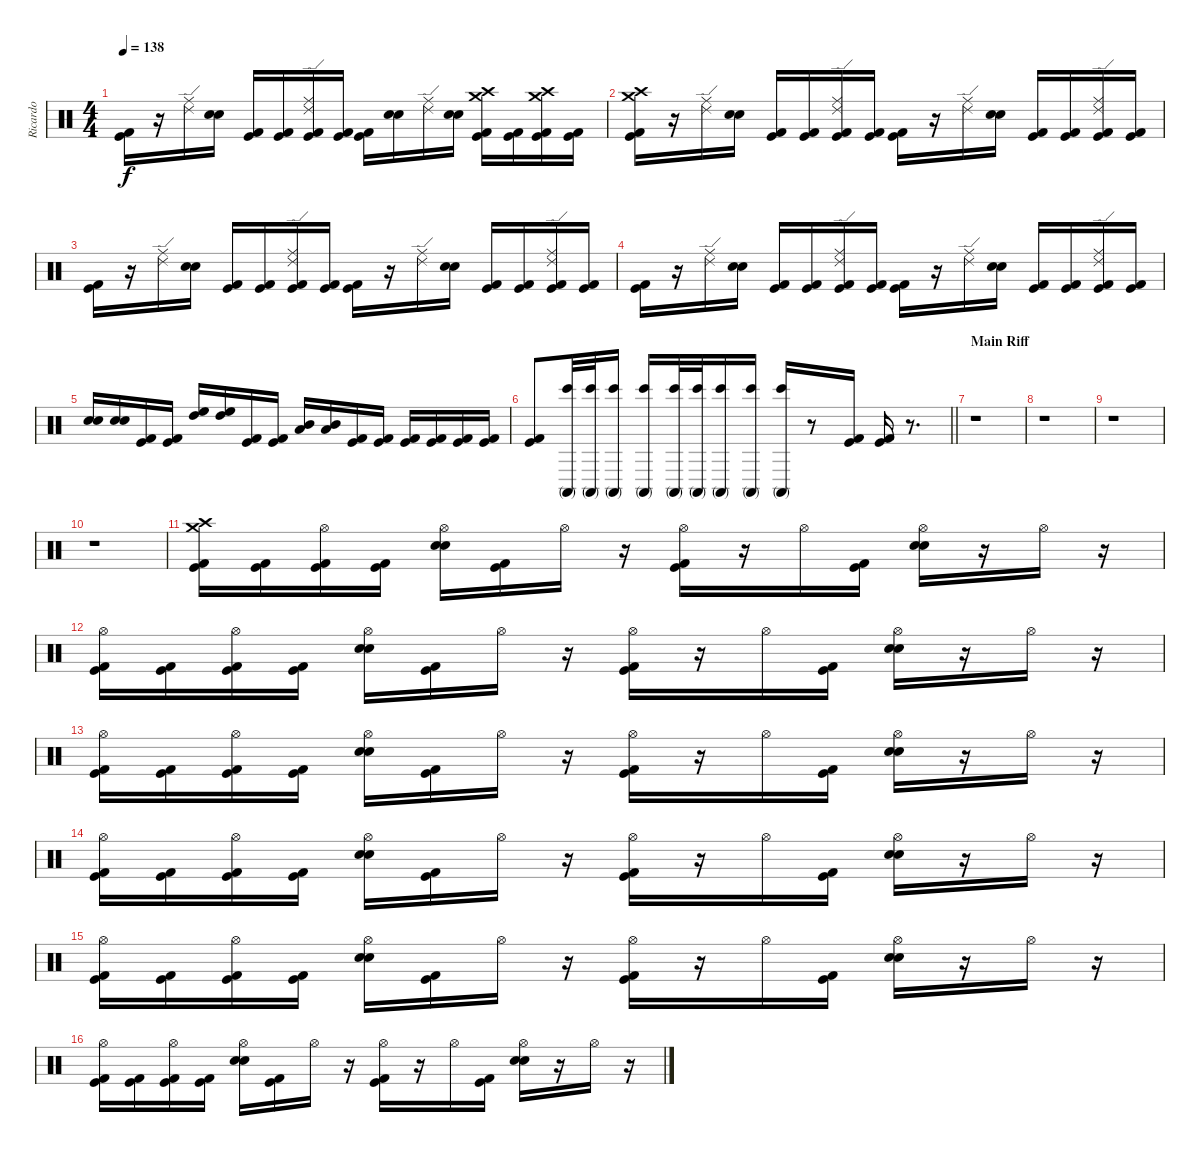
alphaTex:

\track ("Ricardo" "Ricardo") {instrument percussion}
\staff {score}
\articulation defaults
\ts (4 4)
\tempo 138
\clef neutral
\ks c
("Kick (hit)" "Kick (hit) 2").16{dy f} r.16 ("Ride (middle)" "Ride (edge) 2").16 ("Electric Snare (hit)" "Snare (hit) 2").16 ("Kick (hit) 2" "Kick (hit)").16 ("Kick (hit) 2" "Kick (hit)").16 ("Ride (middle)" "Ride (edge) 2" "Kick (hit) 2" "Kick (hit)").16 ("Kick (hit) 2" "Kick (hit)").16 ("Kick (hit) 2" "Kick (hit)").16 ("Electric Snare (hit)" "Snare (hit) 2").16 ("Ride (middle)" "Ride (edge) 2").16 ("Electric Snare (hit)" "Snare (hit) 2").16 ("Crash high (hit)" "Crash medium (hit)" "Kick (hit) 2" "Kick (hit)").16 ("Kick (hit) 2" "Kick (hit)").16 ("Crash high (hit)" "Crash medium (hit)" "Kick (hit) 2" "Kick (hit)").16 ("Kick (hit) 2" "Kick (hit)").16 |
("Crash high (hit)" "Crash medium (hit)" "Kick (hit) 2" "Kick (hit)").16 r.16 ("Ride (middle)" "Ride (edge) 2").16 ("Electric Snare (hit)" "Snare (hit) 2").16 ("Kick (hit) 2" "Kick (hit)").16 ("Kick (hit) 2" "Kick (hit)").16 ("Ride (middle)" "Ride (edge) 2" "Kick (hit) 2" "Kick (hit)").16 ("Kick (hit) 2" "Kick (hit)").16 ("Kick (hit) 2" "Kick (hit)").16 r.16 ("Ride (middle)" "Ride (edge) 2").16 ("Electric Snare (hit)" "Snare (hit) 2").16 ("Kick (hit) 2" "Kick (hit)").16 ("Kick (hit) 2" "Kick (hit)").16 ("Ride (middle)" "Ride (edge) 2" "Kick (hit) 2" "Kick (hit)").16 ("Kick (hit) 2" "Kick (hit)").16 |
("Kick (hit)" "Kick (hit) 2").16 r.16 ("Ride (middle)" "Ride (edge) 2").16 ("Electric Snare (hit)" "Snare (hit) 2").16 ("Kick (hit) 2" "Kick (hit)").16 ("Kick (hit) 2" "Kick (hit)").16 ("Ride (middle)" "Ride (edge) 2" "Kick (hit) 2" "Kick (hit)").16 ("Kick (hit) 2" "Kick (hit)").16 ("Kick (hit) 2" "Kick (hit)").16 r.16 ("Ride (middle)" "Ride (edge) 2").16 ("Electric Snare (hit)" "Snare (hit) 2").16 ("Kick (hit) 2" "Kick (hit)").16 ("Kick (hit) 2" "Kick (hit)").16 ("Ride (middle)" "Ride (edge) 2" "Kick (hit) 2" "Kick (hit)").16 ("Kick (hit) 2" "Kick (hit)").16 |
("Kick (hit)" "Kick (hit) 2").16 r.16 ("Ride (middle)" "Ride (edge) 2").16 ("Electric Snare (hit)" "Snare (hit) 2").16 ("Kick (hit) 2" "Kick (hit)").16 ("Kick (hit) 2" "Kick (hit)").16 ("Ride (middle)" "Ride (edge) 2" "Kick (hit) 2" "Kick (hit)").16 ("Kick (hit) 2" "Kick (hit)").16 ("Kick (hit) 2" "Kick (hit)").16 r.16 ("Ride (middle)" "Ride (edge) 2").16 ("Electric Snare (hit)" "Snare (hit) 2").16 ("Kick (hit) 2" "Kick (hit)").16 ("Kick (hit) 2" "Kick (hit)").16 ("Ride (middle)" "Ride (edge) 2" "Kick (hit) 2" "Kick (hit)").16 ("Kick (hit) 2" "Kick (hit)").16 |
("Electric Snare (hit)" "Snare (hit) 2").16 ("Electric Snare (hit)" "Snare (hit) 2").16 ("Kick (hit) 2" "Kick (hit)").16 ("Kick (hit) 2" "Kick (hit)").16 ("High Tom (hit)" "High Floor Tom (hit)").16 ("High Floor Tom (hit)" "High Tom (hit)").16 ("Kick (hit) 2" "Kick (hit)").16 ("Kick (hit) 2" "Kick (hit)").16 ("Mid Tom (hit)" "Low Tom (hit)").16 ("Mid Tom (hit)" "Low Tom (hit)").16 ("Kick (hit) 2" "Kick (hit)").16 ("Kick (hit) 2" "Kick (hit)").16 ("Kick (hit) 2" "Kick (hit)").16 ("Kick (hit) 2" "Kick (hit)").16 ("Kick (hit) 2" "Kick (hit)").16 ("Kick (hit) 2" "Kick (hit)").16 |
\barLineRight lightlight
("Kick (hit)" "Kick (hit) 2").8 ("Conga high (mute)" "Bongo High (hit)").32 ("Conga high (mute)" "Bongo High (hit)").32 ("Conga high (mute)" "Bongo High (hit)").16 ("Conga high (mute)" "Bongo High (hit)").16 ("Conga high (mute)" "Bongo High (hit)").32 ("Conga high (mute)" "Bongo High (hit)").32 ("Conga high (mute)" "Bongo High (hit)").16 ("Conga high (mute)" "Bongo High (hit)").16 ("Conga high (mute)" "Bongo High (hit)").16 r.8 ("Kick (hit) 2" "Kick (hit)").16 ("Kick (hit) 2" "Kick (hit)").16 r.8{d} |
\section ("" "Main Riff")
r.1 |
r.1 |
r.1 |
r.1 |
("Crash high (hit)" "Crash medium (hit)" "Kick (hit) 2" "Kick (hit)").16 ("Kick (hit) 2" "Kick (hit)").16 ("Hi-Hat (open)" "Kick (hit) 2" "Kick (hit)").16 ("Kick (hit) 2" "Kick (hit)").16 ("Hi-Hat (open)" "Electric Snare (hit)" "Snare (hit) 2").16 ("Kick (hit) 2" "Kick (hit)").16 "Hi-Hat (open)".16 r.16 ("Kick (hit) 2" "Kick (hit)" "Hi-Hat (open)").16 r.16 "Hi-Hat (open)".16 ("Kick (hit) 2" "Kick (hit)").16 ("Electric Snare (hit)" "Snare (hit) 2" "Hi-Hat (open)").16 r.16 "Hi-Hat (open)".16 r.16 |
("Hi-Hat (open)" "Kick (hit) 2" "Kick (hit)").16 ("Kick (hit) 2" "Kick (hit)").16 ("Hi-Hat (open)" "Kick (hit) 2" "Kick (hit)").16 ("Kick (hit) 2" "Kick (hit)").16 ("Hi-Hat (open)" "Electric Snare (hit)" "Snare (hit) 2").16 ("Kick (hit) 2" "Kick (hit)").16 "Hi-Hat (open)".16 r.16 ("Kick (hit) 2" "Kick (hit)" "Hi-Hat (open)").16 r.16 "Hi-Hat (open)".16 ("Kick (hit) 2" "Kick (hit)").16 ("Electric Snare (hit)" "Snare (hit) 2" "Hi-Hat (open)").16 r.16 "Hi-Hat (open)".16 r.16 |
("Hi-Hat (open)" "Kick (hit) 2" "Kick (hit)").16 ("Kick (hit) 2" "Kick (hit)").16 ("Hi-Hat (open)" "Kick (hit) 2" "Kick (hit)").16 ("Kick (hit) 2" "Kick (hit)").16 ("Hi-Hat (open)" "Electric Snare (hit)" "Snare (hit) 2").16 ("Kick (hit) 2" "Kick (hit)").16 "Hi-Hat (open)".16 r.16 ("Kick (hit) 2" "Kick (hit)" "Hi-Hat (open)").16 r.16 "Hi-Hat (open)".16 ("Kick (hit) 2" "Kick (hit)").16 ("Electric Snare (hit)" "Snare (hit) 2" "Hi-Hat (open)").16 r.16 "Hi-Hat (open)".16 r.16 |
("Hi-Hat (open)" "Kick (hit) 2" "Kick (hit)").16 ("Kick (hit) 2" "Kick (hit)").16 ("Hi-Hat (open)" "Kick (hit) 2" "Kick (hit)").16 ("Kick (hit) 2" "Kick (hit)").16 ("Hi-Hat (open)" "Electric Snare (hit)" "Snare (hit) 2").16 ("Kick (hit) 2" "Kick (hit)").16 "Hi-Hat (open)".16 r.16 ("Kick (hit) 2" "Kick (hit)" "Hi-Hat (open)").16 r.16 "Hi-Hat (open)".16 ("Kick (hit) 2" "Kick (hit)").16 ("Electric Snare (hit)" "Snare (hit) 2" "Hi-Hat (open)").16 r.16 "Hi-Hat (open)".16 r.16 |
("Hi-Hat (open)" "Kick (hit) 2" "Kick (hit)").16 ("Kick (hit) 2" "Kick (hit)").16 ("Hi-Hat (open)" "Kick (hit) 2" "Kick (hit)").16 ("Kick (hit) 2" "Kick (hit)").16 ("Hi-Hat (open)" "Electric Snare (hit)" "Snare (hit) 2").16 ("Kick (hit) 2" "Kick (hit)").16 "Hi-Hat (open)".16 r.16 ("Kick (hit) 2" "Kick (hit)" "Hi-Hat (open)").16 r.16 "Hi-Hat (open)".16 ("Kick (hit) 2" "Kick (hit)").16 ("Electric Snare (hit)" "Snare (hit) 2" "Hi-Hat (open)").16 r.16 "Hi-Hat (open)".16 r.16 |
("Hi-Hat (open)" "Kick (hit) 2" "Kick (hit)").16 ("Kick (hit) 2" "Kick (hit)").16 ("Hi-Hat (open)" "Kick (hit) 2" "Kick (hit)").16 ("Kick (hit) 2" "Kick (hit)").16 ("Hi-Hat (open)" "Electric Snare (hit)" "Snare (hit) 2").16 ("Kick (hit) 2" "Kick (hit)").16 "Hi-Hat (open)".16 r.16 ("Kick (hit) 2" "Kick (hit)" "Hi-Hat (open)").16 r.16 "Hi-Hat (open)".16 ("Kick (hit) 2" "Kick (hit)").16 ("Electric Snare (hit)" "Snare (hit) 2" "Hi-Hat (open)").16 r.16 "Hi-Hat (open)".16 r.16
